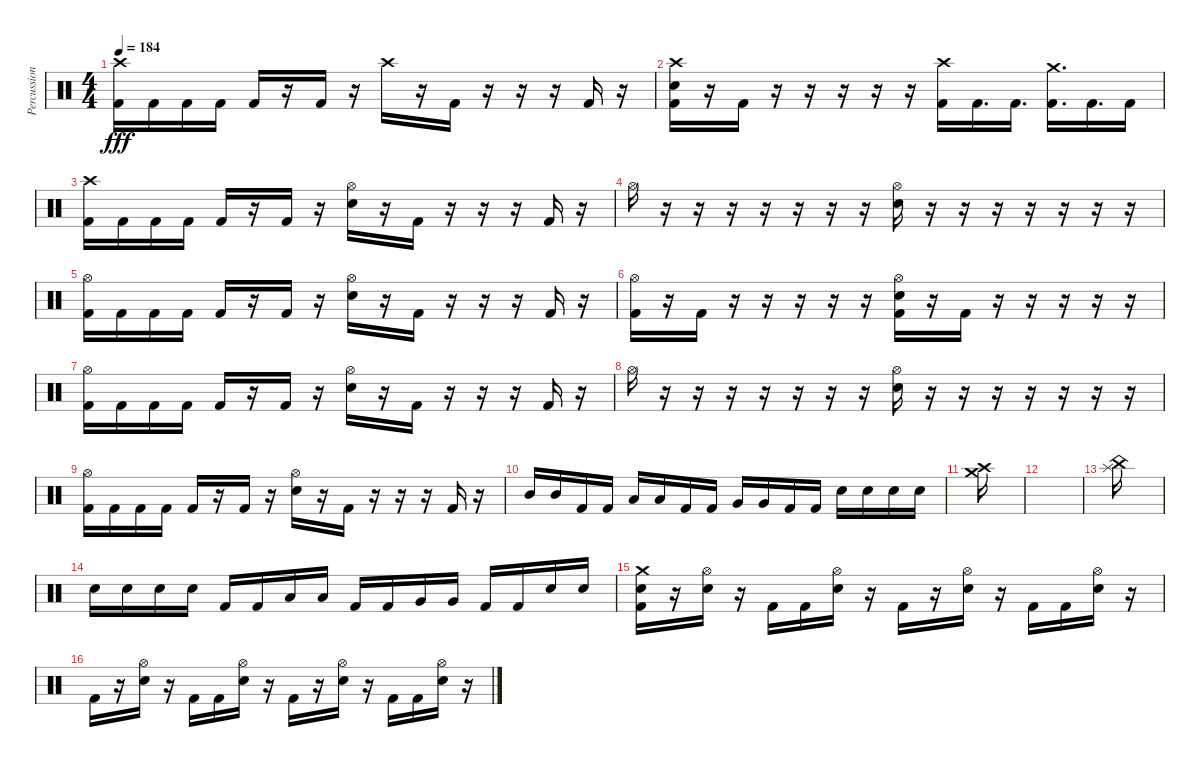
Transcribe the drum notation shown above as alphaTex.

\track ("Percussion" "Percussion") {instrument percussion}
\staff {score}
\articulation defaults
\ts (4 4)
\tempo 184
\clef neutral
\ks c
("Crash high (hit)" "Kick (hit) 2").16{dy fff} "Kick (hit) 2".16 "Kick (hit) 2".16 "Kick (hit) 2".16 "Kick (hit) 2".16 r.16 "Kick (hit) 2".16 r.16 "Crash high (hit)".16 r.16 "Kick (hit) 2".16 r.16 r.16 r.16 "Kick (hit) 2".16 r.16 |
("Crash high (hit)" "Snare (hit) 2" "Kick (hit) 2").16 r.16 "Kick (hit) 2".16 r.16 r.16 r.16 r.16 r.16 ("Crash high (hit)" "Kick (hit) 2").16 "Kick (hit) 2".16{d} "Kick (hit) 2".16{d} ("Crash medium (hit)" "Kick (hit) 2").16{d} "Kick (hit) 2".16{d} "Kick (hit) 2".16 |
("Crash high (hit)" "Kick (hit) 2").16 "Kick (hit) 2".16 "Kick (hit) 2".16 "Kick (hit) 2".16 "Kick (hit) 2".16 r.16 "Kick (hit) 2".16 r.16 ("Hi-Hat (open)" "Snare (hit) 2").16 r.16 "Kick (hit) 2".16 r.16 r.16 r.16 "Kick (hit) 2".16 r.16 |
"Hi-Hat (open)".16 r.16 r.16 r.16 r.16 r.16 r.16 r.16 ("Hi-Hat (open)" "Snare (hit) 2").16 r.16 r.16 r.16 r.16 r.16 r.16 r.16 |
("Hi-Hat (open)" "Kick (hit) 2").16 "Kick (hit) 2".16 "Kick (hit) 2".16 "Kick (hit) 2".16 "Kick (hit) 2".16 r.16 "Kick (hit) 2".16 r.16 ("Hi-Hat (open)" "Snare (hit) 2").16 r.16 "Kick (hit) 2".16 r.16 r.16 r.16 "Kick (hit) 2".16 r.16 |
("Hi-Hat (open)" "Kick (hit) 2").16 r.16 "Kick (hit) 2".16 r.16 r.16 r.16 r.16 r.16 ("Hi-Hat (open)" "Snare (hit) 2" "Kick (hit) 2").16 r.16 "Kick (hit) 2".16 r.16 r.16 r.16 r.16 r.16 |
("Hi-Hat (open)" "Kick (hit) 2").16 "Kick (hit) 2".16 "Kick (hit) 2".16 "Kick (hit) 2".16 "Kick (hit) 2".16 r.16 "Kick (hit) 2".16 r.16 ("Hi-Hat (open)" "Snare (hit) 2").16 r.16 "Kick (hit) 2".16 r.16 r.16 r.16 "Kick (hit) 2".16 r.16 |
"Hi-Hat (open)".16 r.16 r.16 r.16 r.16 r.16 r.16 r.16 ("Hi-Hat (open)" "Snare (hit) 2").16 r.16 r.16 r.16 r.16 r.16 r.16 r.16 |
("Hi-Hat (open)" "Kick (hit) 2").16 "Kick (hit) 2".16 "Kick (hit) 2".16 "Kick (hit) 2".16 "Kick (hit) 2".16 r.16 "Kick (hit) 2".16 r.16 ("Hi-Hat (open)" "Snare (hit) 2").16 r.16 "Kick (hit) 2".16 r.16 r.16 r.16 "Kick (hit) 2".16 r.16 |
"Mid Tom (hit)".16 "Mid Tom (hit)".16 "Kick (hit) 2".16 "Kick (hit) 2".16 "Low Tom (hit)".16 "Low Tom (hit)".16 "Kick (hit) 2".16 "Kick (hit) 2".16 "Very Low Tom (hit)".16 "Very Low Tom (hit)".16 "Kick (hit) 2".16 "Kick (hit) 2".16 "Snare (hit) 2".16 "Snare (hit) 2".16 "Snare (hit) 2".16 "Snare (hit) 2".16 |
("Crash medium (hit)" "Crash high (hit)").16 |
|
("China (hit)" "Splash (hit)").16 |
"Snare (hit) 2".16 "Snare (hit) 2".16 "Snare (hit) 2".16 "Snare (hit) 2".16 "Kick (hit) 2".16 "Kick (hit) 2".16 "Low Tom (hit)".16 "Low Tom (hit)".16 "Kick (hit) 2".16 "Kick (hit) 2".16 "Very Low Tom (hit)".16 "Very Low Tom (hit)".16 "Kick (hit) 2".16 "Kick (hit) 2".16 "Snare (hit) 2".16 "Snare (hit) 2".16 |
("Crash medium (hit)" "Snare (hit) 2" "Kick (hit) 2").16 r.16 ("Hi-Hat (open)" "Snare (hit) 2").16 r.16 "Kick (hit) 2".16 "Kick (hit) 2".16 ("Hi-Hat (open)" "Snare (hit) 2").16 r.16 "Kick (hit) 2".16 r.16 ("Hi-Hat (open)" "Snare (hit) 2").16 r.16 "Kick (hit) 2".16 "Kick (hit) 2".16 ("Hi-Hat (open)" "Snare (hit) 2").16 r.16 |
"Kick (hit) 2".16 r.16 ("Hi-Hat (open)" "Snare (hit) 2").16 r.16 "Kick (hit) 2".16 "Kick (hit) 2".16 ("Hi-Hat (open)" "Snare (hit) 2").16 r.16 "Kick (hit) 2".16 r.16 ("Hi-Hat (open)" "Snare (hit) 2").16 r.16 "Kick (hit) 2".16 "Kick (hit) 2".16 ("Hi-Hat (open)" "Snare (hit) 2").16 r.16
